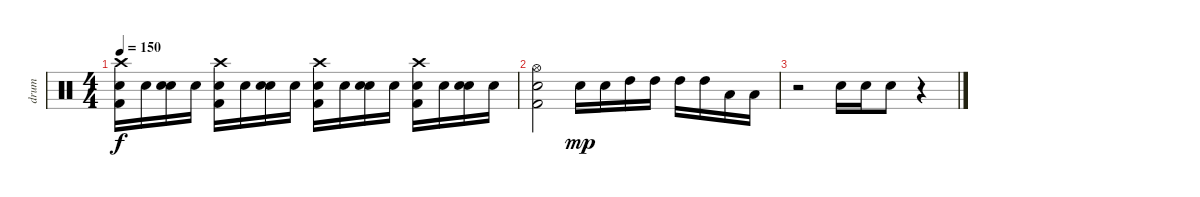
\track ("drum" "drum") {instrument percussion}
\staff {score}
\articulation defaults
\ts (4 4)
\tempo 150
\clef neutral
\ks c
("Crash high (hit)" "Snare (hit) 2" "Kick (hit) 2").16{dy f} "Snare (hit) 2".16 ("Snare (hit) 2" "Snare (hit) 2").16 "Snare (hit) 2".16 ("Crash high (hit)" "Snare (hit) 2" "Kick (hit) 2").16 "Snare (hit) 2".16 ("Snare (hit) 2" "Snare (hit) 2").16 "Snare (hit) 2".16 ("Crash high (hit)" "Snare (hit) 2" "Kick (hit) 2").16 "Snare (hit) 2".16 ("Snare (hit) 2" "Snare (hit) 2").16 "Snare (hit) 2".16 ("Crash high (hit)" "Snare (hit) 2" "Kick (hit) 2").16 "Snare (hit) 2".16 ("Snare (hit) 2" "Snare (hit) 2").16 "Snare (hit) 2".16 |
("Hi-Hat (open)" "Snare (hit) 2" "Kick (hit) 2").2 "Snare (hit) 2".16{dy mp} "Snare (hit) 2".16 "High Tom (hit)".16 "High Tom (hit)".16 "High Tom (hit)".16 "High Tom (hit)".16 "Low Tom (hit)".16 "Low Tom (hit)".16 |
r.2 "Snare (hit) 2".16 "Snare (hit) 2".16 "Snare (hit) 2".8 r.4
